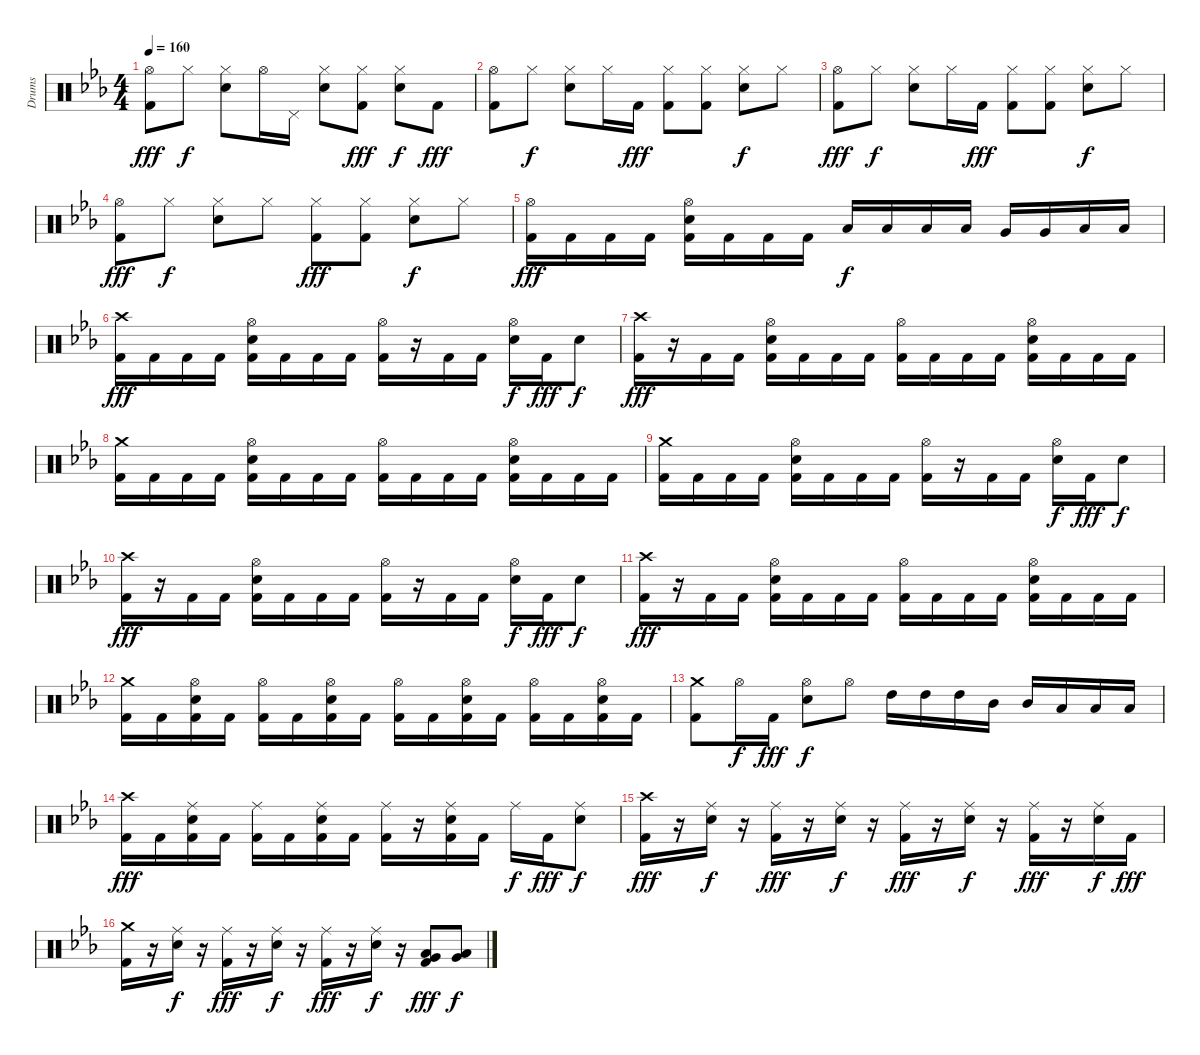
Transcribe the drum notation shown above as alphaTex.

\track ("Drums" "Drums") {instrument percussion}
\staff {score}
\articulation defaults
\ts (4 4)
\tempo 160
\clef neutral
\ks eb
("Hi-Hat (open)" "Kick (hit) 2").8{dy fff} "Hi-Hat (closed)".8{dy f} ("Hi-Hat (closed)" "Electric Snare (hit)").8 "Hi-Hat (open)".16 "Pedal Hi-Hat (hit)".16 ("Hi-Hat (closed)" "Electric Snare (hit)").8 ("Hi-Hat (closed)" "Kick (hit) 2").8{dy fff} ("Hi-Hat (closed)" "Electric Snare (hit)").8{dy f} "Kick (hit) 2".8{dy fff} |
("Hi-Hat (open)" "Kick (hit) 2").8 "Hi-Hat (closed)".8{dy f} ("Hi-Hat (closed)" "Electric Snare (hit)").8 "Hi-Hat (closed)".16 "Kick (hit) 2".16{dy fff} ("Hi-Hat (closed)" "Kick (hit) 2").8 ("Hi-Hat (closed)" "Kick (hit) 2").8 ("Hi-Hat (closed)" "Electric Snare (hit)").8{dy f} "Hi-Hat (closed)".8 |
("Hi-Hat (open)" "Kick (hit) 2").8{dy fff} "Hi-Hat (closed)".8{dy f} ("Hi-Hat (closed)" "Electric Snare (hit)").8 "Hi-Hat (closed)".16 "Kick (hit) 2".16{dy fff} ("Hi-Hat (closed)" "Kick (hit) 2").8 ("Hi-Hat (closed)" "Kick (hit) 2").8 ("Hi-Hat (closed)" "Electric Snare (hit)").8{dy f} "Hi-Hat (closed)".8 |
("Hi-Hat (open)" "Kick (hit) 2").8{dy fff} "Hi-Hat (closed)".8{dy f} ("Hi-Hat (closed)" "Electric Snare (hit)").8 "Hi-Hat (closed)".8 ("Hi-Hat (closed)" "Kick (hit) 2").8{dy fff} ("Hi-Hat (closed)" "Kick (hit) 2").8 ("Hi-Hat (closed)" "Electric Snare (hit)").8{dy f} "Hi-Hat (closed)".8 |
("Hi-Hat (open)" "Kick (hit) 2").16{dy fff} "Kick (hit) 2".16 "Kick (hit) 2".16 "Kick (hit) 2".16 ("Hi-Hat (open)" "Electric Snare (hit)" "Kick (hit) 2").16 "Kick (hit) 2".16 "Kick (hit) 2".16 "Kick (hit) 2".16 "Low Tom (hit)".16{dy f} "Low Tom (hit)".16 "Low Tom (hit)".16 "Low Tom (hit)".16 "Very Low Tom (hit)".16 "Very Low Tom (hit)".16 "Low Floor Tom (hit)".16 "Low Floor Tom (hit)".16 |
("Crash high (hit)" "Kick (hit) 2").16{dy fff} "Kick (hit) 2".16 "Kick (hit) 2".16 "Kick (hit) 2".16 ("Hi-Hat (open)" "Electric Snare (hit)" "Kick (hit) 2").16 "Kick (hit) 2".16 "Kick (hit) 2".16 "Kick (hit) 2".16 ("Hi-Hat (open)" "Kick (hit) 2").16 r.16 "Kick (hit) 2".16 "Kick (hit) 2".16 ("Hi-Hat (open)" "Electric Snare (hit)").16{dy f} "Kick (hit) 2".16{dy fff} "Electric Snare (hit)".8{dy f} |
("Crash high (hit)" "Kick (hit) 2").16{dy fff} r.16 "Kick (hit) 2".16 "Kick (hit) 2".16 ("Hi-Hat (open)" "Electric Snare (hit)" "Kick (hit) 2").16 "Kick (hit) 2".16 "Kick (hit) 2".16 "Kick (hit) 2".16 ("Hi-Hat (open)" "Kick (hit) 2").16 "Kick (hit) 2".16 "Kick (hit) 2".16 "Kick (hit) 2".16 ("Hi-Hat (open)" "Electric Snare (hit)" "Kick (hit) 2").16 "Kick (hit) 2".16 "Kick (hit) 2".16 "Kick (hit) 2".16 |
("Crash medium (hit)" "Kick (hit) 2").16 "Kick (hit) 2".16 "Kick (hit) 2".16 "Kick (hit) 2".16 ("Hi-Hat (open)" "Electric Snare (hit)" "Kick (hit) 2").16 "Kick (hit) 2".16 "Kick (hit) 2".16 "Kick (hit) 2".16 ("Hi-Hat (open)" "Kick (hit) 2").16 "Kick (hit) 2".16 "Kick (hit) 2".16 "Kick (hit) 2".16 ("Hi-Hat (open)" "Electric Snare (hit)" "Kick (hit) 2").16 "Kick (hit) 2".16 "Kick (hit) 2".16 "Kick (hit) 2".16 |
("Crash medium (hit)" "Kick (hit) 2").16 "Kick (hit) 2".16 "Kick (hit) 2".16 "Kick (hit) 2".16 ("Hi-Hat (open)" "Electric Snare (hit)" "Kick (hit) 2").16 "Kick (hit) 2".16 "Kick (hit) 2".16 "Kick (hit) 2".16 ("Hi-Hat (open)" "Kick (hit) 2").16 r.16 "Kick (hit) 2".16 "Kick (hit) 2".16 ("Hi-Hat (open)" "Electric Snare (hit)").16{dy f} "Kick (hit) 2".16{dy fff} "Electric Snare (hit)".8{dy f} |
("Crash high (hit)" "Kick (hit) 2").16{dy fff} r.16 "Kick (hit) 2".16 "Kick (hit) 2".16 ("Hi-Hat (open)" "Electric Snare (hit)" "Kick (hit) 2").16 "Kick (hit) 2".16 "Kick (hit) 2".16 "Kick (hit) 2".16 ("Hi-Hat (open)" "Kick (hit) 2").16 r.16 "Kick (hit) 2".16 "Kick (hit) 2".16 ("Hi-Hat (open)" "Electric Snare (hit)").16{dy f} "Kick (hit) 2".16{dy fff} "Electric Snare (hit)".8{dy f} |
("Crash high (hit)" "Kick (hit) 2").16{dy fff} r.16 "Kick (hit) 2".16 "Kick (hit) 2".16 ("Hi-Hat (open)" "Electric Snare (hit)" "Kick (hit) 2").16 "Kick (hit) 2".16 "Kick (hit) 2".16 "Kick (hit) 2".16 ("Hi-Hat (open)" "Kick (hit) 2").16 "Kick (hit) 2".16 "Kick (hit) 2".16 "Kick (hit) 2".16 ("Hi-Hat (open)" "Electric Snare (hit)" "Kick (hit) 2").16 "Kick (hit) 2".16 "Kick (hit) 2".16 "Kick (hit) 2".16 |
("Crash medium (hit)" "Kick (hit) 2").16 "Kick (hit) 2".16 ("Hi-Hat (open)" "Electric Snare (hit)" "Kick (hit) 2").16 "Kick (hit) 2".16 ("Hi-Hat (open)" "Kick (hit) 2").16 "Kick (hit) 2".16 ("Hi-Hat (open)" "Electric Snare (hit)" "Kick (hit) 2").16 "Kick (hit) 2".16 ("Hi-Hat (open)" "Kick (hit) 2").16 "Kick (hit) 2".16 ("Hi-Hat (open)" "Electric Snare (hit)" "Kick (hit) 2").16 "Kick (hit) 2".16 ("Hi-Hat (open)" "Kick (hit) 2").16 "Kick (hit) 2".16 ("Hi-Hat (open)" "Electric Snare (hit)" "Kick (hit) 2").16 "Kick (hit) 2".16 |
("Crash medium (hit)" "Kick (hit) 2").8 "Hi-Hat (open)".16{dy f} "Kick (hit) 2".16{dy fff} ("Hi-Hat (open)" "Electric Snare (hit)").8{dy f} "Hi-Hat (open)".8 "High Tom (hit)".16 "High Tom (hit)".16 "High Tom (hit)".16 "Mid Tom (hit)".16 "Mid Tom (hit)".16 "Low Tom (hit)".16 "Low Tom (hit)".16 "Low Tom (hit)".16 |
("Crash high (hit)" "Kick (hit) 2").16{dy fff} "Kick (hit) 2".16 ("Ride (middle)" "Electric Snare (hit)" "Kick (hit) 2").16 "Kick (hit) 2".16 ("Ride (middle)" "Kick (hit) 2").16 "Kick (hit) 2".16 ("Ride (middle)" "Electric Snare (hit)" "Kick (hit) 2").16 "Kick (hit) 2".16 ("Ride (middle)" "Kick (hit) 2").16 r.16 ("Ride (middle)" "Electric Snare (hit)" "Kick (hit) 2").16 "Kick (hit) 2".16 "Ride (middle)".16{dy f} "Kick (hit) 2".16{dy fff} ("Ride (middle)" "Electric Snare (hit)").8{dy f} |
("Crash high (hit)" "Kick (hit) 2").16{dy fff} r.16 ("Ride (middle)" "Electric Snare (hit)").16{dy f} r.16 ("Ride (middle)" "Kick (hit) 2").16{dy fff} r.16 ("Ride (middle)" "Electric Snare (hit)").16{dy f} r.16 ("Ride (middle)" "Kick (hit) 2").16{dy fff} r.16 ("Ride (middle)" "Electric Snare (hit)").16{dy f} r.16 ("Ride (middle)" "Kick (hit) 2").16{dy fff} r.16 ("Ride (middle)" "Electric Snare (hit)").16{dy f} "Kick (hit) 2".16{dy fff} |
("Crash medium (hit)" "Kick (hit) 2").16 r.16 ("Ride (middle)" "Electric Snare (hit)").16{dy f} r.16 ("Ride (middle)" "Kick (hit) 2").16{dy fff} r.16 ("Ride (middle)" "Electric Snare (hit)").16{dy f} r.16 ("Ride (middle)" "Kick (hit) 2").16{dy fff} r.16 ("Ride (middle)" "Electric Snare (hit)").16{dy f} r.16 ("Low Tom (hit)" "Very Low Tom (hit)" "Kick (hit) 2").8{dy fff} ("Low Tom (hit)" "Very Low Tom (hit)").8{dy f}
